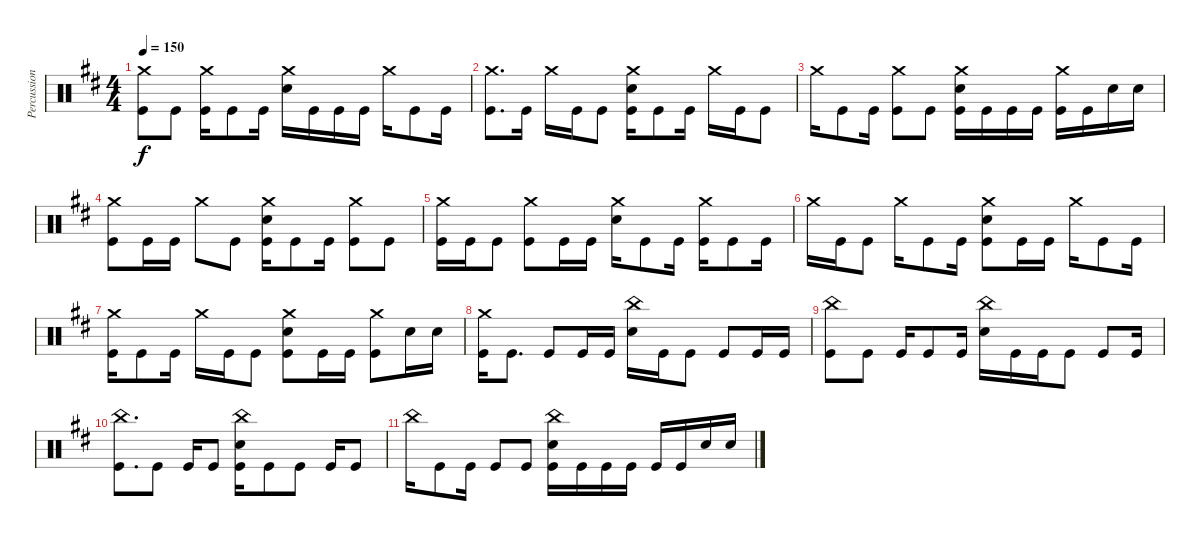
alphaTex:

\track ("Percussion" "Percussion") {instrument percussion}
\staff {score}
\articulation defaults
\ts (4 4)
\tempo 150
\clef neutral
\ks d
("Crash medium (hit)" "Kick (hit)").8{dy f} "Kick (hit)".8 ("Crash medium (hit)" "Kick (hit)").16 "Kick (hit)".8 "Kick (hit)".16 ("Crash medium (hit)" "Electric Snare (hit)").16 "Kick (hit)".16 "Kick (hit)".16 "Kick (hit)".16 "Crash medium (hit)".16 "Kick (hit)".8 "Kick (hit)".16 |
("Crash medium (hit)" "Kick (hit)").8{d} "Kick (hit)".16 "Crash medium (hit)".16 "Kick (hit)".16 "Kick (hit)".8 ("Crash medium (hit)" "Electric Snare (hit)" "Kick (hit)").16 "Kick (hit)".8 "Kick (hit)".16 "Crash medium (hit)".16 "Kick (hit)".16 "Kick (hit)".8 |
"Crash medium (hit)".16 "Kick (hit)".8 "Kick (hit)".16 ("Crash medium (hit)" "Kick (hit)").8 "Kick (hit)".8 ("Crash medium (hit)" "Electric Snare (hit)" "Kick (hit)").16 "Kick (hit)".16 "Kick (hit)".16 "Kick (hit)".16 ("Crash medium (hit)" "Kick (hit)").16 "Kick (hit)".16 "Electric Snare (hit)".16 "Electric Snare (hit)".16 |
("Crash medium (hit)" "Kick (hit)").8 "Kick (hit)".16 "Kick (hit)".16 "Crash medium (hit)".8 "Kick (hit)".8 ("Crash medium (hit)" "Electric Snare (hit)" "Kick (hit)").16 "Kick (hit)".8 "Kick (hit)".16 ("Crash medium (hit)" "Kick (hit)").8 "Kick (hit)".8 |
("Crash medium (hit)" "Kick (hit)").16 "Kick (hit)".16 "Kick (hit)".8 ("Crash medium (hit)" "Kick (hit)").8 "Kick (hit)".16 "Kick (hit)".16 ("Crash medium (hit)" "Electric Snare (hit)").16 "Kick (hit)".8 "Kick (hit)".16 ("Crash medium (hit)" "Kick (hit)").16 "Kick (hit)".8 "Kick (hit)".16 |
"Crash medium (hit)".16 "Kick (hit)".16 "Kick (hit)".8 "Crash medium (hit)".16 "Kick (hit)".8 "Kick (hit)".16 ("Crash medium (hit)" "Electric Snare (hit)" "Kick (hit)").8 "Kick (hit)".16 "Kick (hit)".16 "Crash medium (hit)".16 "Kick (hit)".8 "Kick (hit)".16 |
("Crash medium (hit)" "Kick (hit)").16 "Kick (hit)".8 "Kick (hit)".16 "Crash medium (hit)".16 "Kick (hit)".16 "Kick (hit)".8 ("Crash medium (hit)" "Electric Snare (hit)" "Kick (hit)").8 "Kick (hit)".16 "Kick (hit)".16 ("Crash medium (hit)" "Kick (hit)").8 "Electric Snare (hit)".16 "Electric Snare (hit)".16 |
("Crash medium (hit)" "Kick (hit)").16 "Kick (hit)".8{d} "Kick (hit)".8 "Kick (hit)".16 "Kick (hit)".16 ("China (hit)" "Electric Snare (hit)").16 "Kick (hit)".16 "Kick (hit)".8 "Kick (hit)".8 "Kick (hit)".16 "Kick (hit)".16 |
("China (hit)" "Kick (hit)").8 "Kick (hit)".8 "Kick (hit)".16 "Kick (hit)".8 "Kick (hit)".16 ("China (hit)" "Electric Snare (hit)").16 "Kick (hit)".16 "Kick (hit)".16 "Kick (hit)".8 "Kick (hit)".8 "Kick (hit)".16 |
("China (hit)" "Kick (hit)").8{d} "Kick (hit)".8 "Kick (hit)".16 "Kick (hit)".8 ("China (hit)" "Electric Snare (hit)" "Kick (hit)").16 "Kick (hit)".8 "Kick (hit)".8 "Kick (hit)".16 "Kick (hit)".8 |
"China (hit)".16 "Kick (hit)".8 "Kick (hit)".16 "Kick (hit)".8 "Kick (hit)".8 ("China (hit)" "Electric Snare (hit)" "Kick (hit)").16 "Kick (hit)".16 "Kick (hit)".16 "Kick (hit)".16 "Kick (hit)".16 "Kick (hit)".16 "Electric Snare (hit)".16 "Electric Snare (hit)".16
